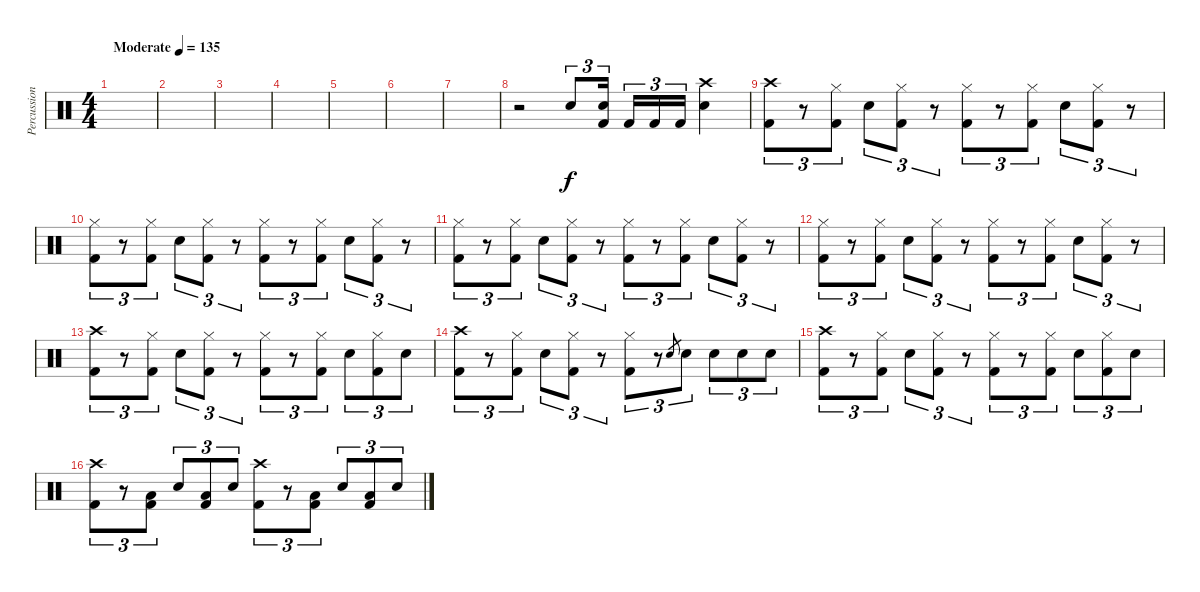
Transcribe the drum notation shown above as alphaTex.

\track ("Percussioni" "Percussion") {instrument percussion}
\staff {score}
\articulation defaults
\ts (4 4)
\tempo (135 "Moderate")
\clef neutral
\ks c
|
|
|
|
|
|
|
r.2 "Electric Snare (hit)".8{tu (3 2)} ("Electric Snare (hit)" "Kick (hit) 2").16{tu (3 2) beam splitsecondary} "Kick (hit) 2".16{tu (3 2)} "Kick (hit) 2".16{tu (3 2)} "Kick (hit) 2".16{tu (3 2)} ("Crash high (hit)" "Electric Snare (hit)").4 |
("Crash high (hit)" "Kick (hit) 2").8{tu (3 2)} r.8{tu (3 2)} ("Hi-Hat (closed)" "Kick (hit) 2").8{tu (3 2)} "Electric Snare (hit)".8{tu (3 2)} ("Hi-Hat (closed)" "Kick (hit) 2").8{tu (3 2)} r.8{tu (3 2)} ("Hi-Hat (closed)" "Kick (hit) 2").8{tu (3 2)} r.8{tu (3 2)} ("Hi-Hat (closed)" "Kick (hit) 2").8{tu (3 2)} "Electric Snare (hit)".8{tu (3 2)} ("Hi-Hat (closed)" "Kick (hit) 2").8{tu (3 2)} r.8{tu (3 2)} |
("Hi-Hat (closed)" "Kick (hit) 2").8{tu (3 2)} r.8{tu (3 2)} ("Hi-Hat (closed)" "Kick (hit) 2").8{tu (3 2)} "Electric Snare (hit)".8{tu (3 2)} ("Hi-Hat (closed)" "Kick (hit) 2").8{tu (3 2)} r.8{tu (3 2)} ("Hi-Hat (closed)" "Kick (hit) 2").8{tu (3 2)} r.8{tu (3 2)} ("Hi-Hat (closed)" "Kick (hit) 2").8{tu (3 2)} "Electric Snare (hit)".8{tu (3 2)} ("Hi-Hat (closed)" "Kick (hit) 2").8{tu (3 2)} r.8{tu (3 2)} |
("Hi-Hat (closed)" "Kick (hit) 2").8{tu (3 2)} r.8{tu (3 2)} ("Hi-Hat (closed)" "Kick (hit) 2").8{tu (3 2)} "Electric Snare (hit)".8{tu (3 2)} ("Hi-Hat (closed)" "Kick (hit) 2").8{tu (3 2)} r.8{tu (3 2)} ("Hi-Hat (closed)" "Kick (hit) 2").8{tu (3 2)} r.8{tu (3 2)} ("Hi-Hat (closed)" "Kick (hit) 2").8{tu (3 2)} "Electric Snare (hit)".8{tu (3 2)} ("Hi-Hat (closed)" "Kick (hit) 2").8{tu (3 2)} r.8{tu (3 2)} |
("Hi-Hat (closed)" "Kick (hit) 2").8{tu (3 2)} r.8{tu (3 2)} ("Hi-Hat (closed)" "Kick (hit) 2").8{tu (3 2)} "Electric Snare (hit)".8{tu (3 2)} ("Hi-Hat (closed)" "Kick (hit) 2").8{tu (3 2)} r.8{tu (3 2)} ("Hi-Hat (closed)" "Kick (hit) 2").8{tu (3 2)} r.8{tu (3 2)} ("Hi-Hat (closed)" "Kick (hit) 2").8{tu (3 2)} "Electric Snare (hit)".8{tu (3 2)} ("Hi-Hat (closed)" "Kick (hit) 2").8{tu (3 2)} r.8{tu (3 2)} |
("Crash high (hit)" "Kick (hit) 2").8{tu (3 2)} r.8{tu (3 2)} ("Hi-Hat (closed)" "Kick (hit) 2").8{tu (3 2)} "Electric Snare (hit)".8{tu (3 2)} ("Hi-Hat (closed)" "Kick (hit) 2").8{tu (3 2)} r.8{tu (3 2)} ("Hi-Hat (closed)" "Kick (hit) 2").8{tu (3 2)} r.8{tu (3 2)} ("Hi-Hat (closed)" "Kick (hit) 2").8{tu (3 2)} "Electric Snare (hit)".8{tu (3 2)} ("Hi-Hat (closed)" "Kick (hit) 2").8{tu (3 2)} "Electric Snare (hit)".8{tu (3 2)} |
("Crash high (hit)" "Kick (hit) 2").8{tu (3 2)} r.8{tu (3 2)} ("Hi-Hat (closed)" "Kick (hit) 2").8{tu (3 2)} "Electric Snare (hit)".8{tu (3 2)} ("Hi-Hat (closed)" "Kick (hit) 2").8{tu (3 2)} r.8{tu (3 2)} ("Hi-Hat (closed)" "Kick (hit) 2").8{tu (3 2)} r.8{tu (3 2)} "Electric Snare (hit)".8{gr} "Electric Snare (hit)".8{tu (3 2)} "Electric Snare (hit)".8{tu (3 2)} "Electric Snare (hit)".8{tu (3 2)} "Electric Snare (hit)".8{tu (3 2)} |
("Crash high (hit)" "Kick (hit) 2").8{tu (3 2)} r.8{tu (3 2)} ("Hi-Hat (closed)" "Kick (hit) 2").8{tu (3 2)} "Electric Snare (hit)".8{tu (3 2)} ("Hi-Hat (closed)" "Kick (hit) 2").8{tu (3 2)} r.8{tu (3 2)} ("Hi-Hat (closed)" "Kick (hit) 2").8{tu (3 2)} r.8{tu (3 2)} ("Hi-Hat (closed)" "Kick (hit) 2").8{tu (3 2)} "Electric Snare (hit)".8{tu (3 2)} ("Hi-Hat (closed)" "Kick (hit) 2").8{tu (3 2)} "Electric Snare (hit)".8{tu (3 2)} |
("Crash high (hit)" "Kick (hit) 2").8{tu (3 2)} r.8{tu (3 2)} ("Low Tom (hit)" "Kick (hit) 2").8{tu (3 2)} "Electric Snare (hit)".8{tu (3 2)} ("Low Tom (hit)" "Kick (hit) 2").8{tu (3 2)} "Electric Snare (hit)".8{tu (3 2)} ("Crash high (hit)" "Kick (hit) 2").8{tu (3 2)} r.8{tu (3 2)} ("Low Tom (hit)" "Kick (hit) 2").8{tu (3 2)} "Electric Snare (hit)".8{tu (3 2)} ("Low Tom (hit)" "Kick (hit) 2").8{tu (3 2)} "Electric Snare (hit)".8{tu (3 2)}
